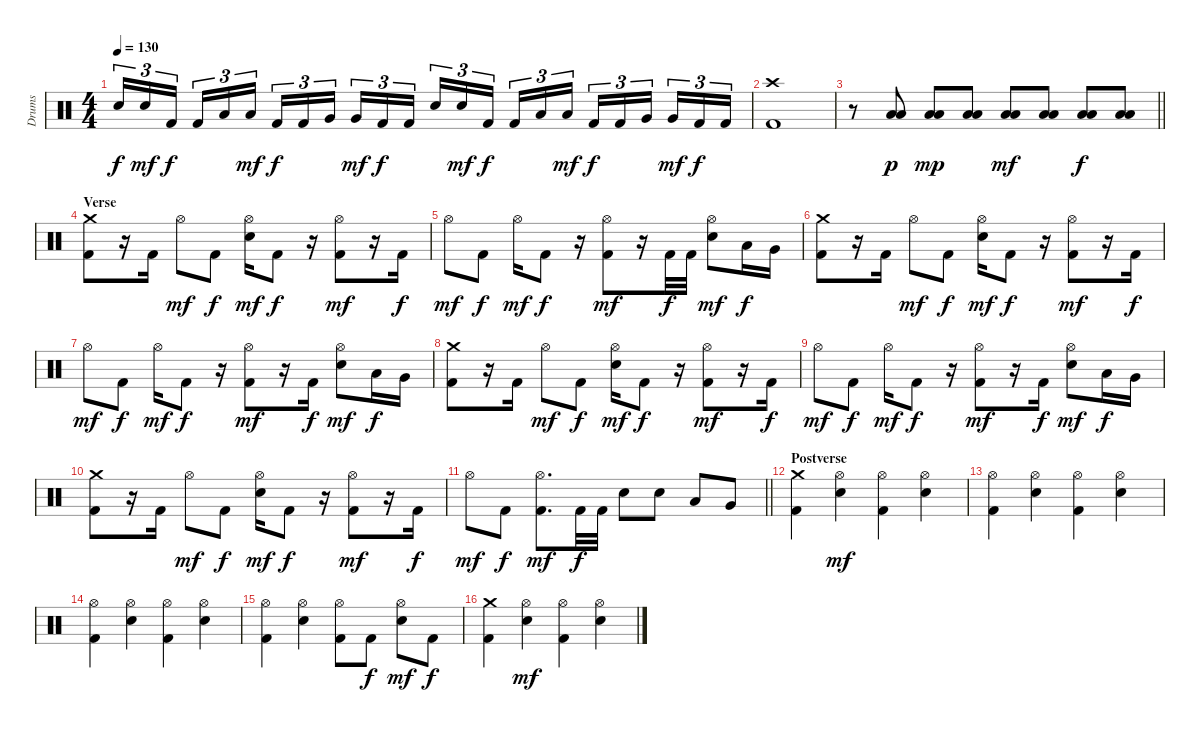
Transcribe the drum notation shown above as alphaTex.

\track ("Drums" "Drums") {instrument percussion}
\staff {score}
\articulation defaults
\ts (4 4)
\tempo 130
\clef neutral
\ks c "Electric Snare (hit)".16{tu (3 2) dy f} "Electric Snare (hit)".16{tu (3 2) dy mf} "Kick (hit) 2".16{tu (3 2) dy f beam splitsecondary} "Kick (hit) 2".16{tu (3 2)} "Low Tom (hit)".16{tu (3 2)} "Low Tom (hit)".16{tu (3 2) dy mf} "Kick (hit) 2".16{tu (3 2) dy f} "Kick (hit) 2".16{tu (3 2)} "Very Low Tom (hit)".16{tu (3 2) beam splitsecondary} "Very Low Tom (hit)".16{tu (3 2) dy mf} "Kick (hit) 2".16{tu (3 2) dy f} "Kick (hit) 2".16{tu (3 2)} "Electric Snare (hit)".16{tu (3 2)} "Electric Snare (hit)".16{tu (3 2) dy mf} "Kick (hit) 2".16{tu (3 2) dy f beam splitsecondary} "Kick (hit) 2".16{tu (3 2)} "Low Tom (hit)".16{tu (3 2)} "Low Tom (hit)".16{tu (3 2) dy mf} "Kick (hit) 2".16{tu (3 2) dy f} "Kick (hit) 2".16{tu (3 2)} "Very Low Tom (hit)".16{tu (3 2) beam splitsecondary} "Very Low Tom (hit)".16{tu (3 2) dy mf} "Kick (hit) 2".16{tu (3 2) dy f} "Kick (hit) 2".16{tu (3 2)}
|
("Kick (hit) 2" "Crash high (hit)").1 |
\barLineRight lightlight
r.8 ("Low Floor Tom (hit)" "Low Tom (hit)").8{dy p} ("Low Floor Tom (hit)" "Low Tom (hit)").8{dy mp} ("Low Floor Tom (hit)" "Low Tom (hit)").8 ("Low Floor Tom (hit)" "Low Tom (hit)").8{dy mf} ("Low Floor Tom (hit)" "Low Tom (hit)").8 ("Low Floor Tom (hit)" "Low Tom (hit)").8{dy f} ("Low Floor Tom (hit)" "Low Tom (hit)").8 |
\section ("" "Verse")
("Kick (hit) 2" "Crash medium (hit)").8 r.16 "Kick (hit) 2".16 "Hi-Hat (open)".8{dy mf} "Kick (hit) 2".8{dy f} ("Hi-Hat (open)" "Electric Snare (hit)").16{dy mf} "Kick (hit) 2".8{dy f} r.16 ("Kick (hit) 2" "Hi-Hat (open)").8{dy mf} r.16 "Kick (hit) 2".16{dy f} |
"Hi-Hat (open)".8{dy mf} "Kick (hit) 2".8{dy f} "Hi-Hat (open)".16{dy mf} "Kick (hit) 2".8{dy f} r.16 ("Kick (hit) 2" "Hi-Hat (open)").8{dy mf} r.16 "Kick (hit) 2".32{dy f} "Kick (hit) 2".32 ("Hi-Hat (open)" "Electric Snare (hit)").8{dy mf} "Low Tom (hit)".16{dy f} "Very Low Tom (hit)".16 |
("Kick (hit) 2" "Crash medium (hit)").8 r.16 "Kick (hit) 2".16 "Hi-Hat (open)".8{dy mf} "Kick (hit) 2".8{dy f} ("Hi-Hat (open)" "Electric Snare (hit)").16{dy mf} "Kick (hit) 2".8{dy f} r.16 ("Kick (hit) 2" "Hi-Hat (open)").8{dy mf} r.16 "Kick (hit) 2".16{dy f} |
"Hi-Hat (open)".8{dy mf} "Kick (hit) 2".8{dy f} "Hi-Hat (open)".16{dy mf} "Kick (hit) 2".8{dy f} r.16 ("Kick (hit) 2" "Hi-Hat (open)").8{dy mf} r.16 "Kick (hit) 2".16{dy f} ("Hi-Hat (open)" "Electric Snare (hit)").8{dy mf} "Low Tom (hit)".16{dy f} "Very Low Tom (hit)".16 |
("Kick (hit) 2" "Crash medium (hit)").8 r.16 "Kick (hit) 2".16 "Hi-Hat (open)".8{dy mf} "Kick (hit) 2".8{dy f} ("Hi-Hat (open)" "Electric Snare (hit)").16{dy mf} "Kick (hit) 2".8{dy f} r.16 ("Kick (hit) 2" "Hi-Hat (open)").8{dy mf} r.16 "Kick (hit) 2".16{dy f} |
"Hi-Hat (open)".8{dy mf} "Kick (hit) 2".8{dy f} "Hi-Hat (open)".16{dy mf} "Kick (hit) 2".8{dy f} r.16 ("Kick (hit) 2" "Hi-Hat (open)").8{dy mf} r.16 "Kick (hit) 2".16{dy f} ("Hi-Hat (open)" "Electric Snare (hit)").8{dy mf} "Low Tom (hit)".16{dy f} "Very Low Tom (hit)".16 |
("Kick (hit) 2" "Crash medium (hit)").8 r.16 "Kick (hit) 2".16 "Hi-Hat (open)".8{dy mf} "Kick (hit) 2".8{dy f} ("Hi-Hat (open)" "Electric Snare (hit)").16{dy mf} "Kick (hit) 2".8{dy f} r.16 ("Kick (hit) 2" "Hi-Hat (open)").8{dy mf} r.16 "Kick (hit) 2".16{dy f} |
\barLineRight lightlight "Hi-Hat (open)".8{dy mf} "Kick (hit) 2".8{dy f}
("Kick (hit) 2" "Hi-Hat (open)").8{d dy mf} "Kick (hit) 2".32{dy f} "Kick (hit) 2".32 "Electric Snare (hit)".8 "Electric Snare (hit)".8 "Low Tom (hit)".8 "Very Low Tom (hit)".8 |
\section ("" "Postverse")
("Kick (hit) 2" "Crash medium (hit)").4 ("Hi-Hat (open)" "Electric Snare (hit)").4{dy mf} ("Kick (hit) 2" "Hi-Hat (open)").4 ("Hi-Hat (open)" "Electric Snare (hit)").4 |
("Kick (hit) 2" "Hi-Hat (open)").4 ("Hi-Hat (open)" "Electric Snare (hit)").4 ("Kick (hit) 2" "Hi-Hat (open)").4 ("Hi-Hat (open)" "Electric Snare (hit)").4 |
("Kick (hit) 2" "Hi-Hat (open)").4 ("Hi-Hat (open)" "Electric Snare (hit)").4 ("Kick (hit) 2" "Hi-Hat (open)").4 ("Hi-Hat (open)" "Electric Snare (hit)").4 |
("Kick (hit) 2" "Hi-Hat (open)").4 ("Hi-Hat (open)" "Electric Snare (hit)").4 ("Kick (hit) 2" "Hi-Hat (open)").8 "Kick (hit) 2".8{dy f} ("Hi-Hat (open)" "Electric Snare (hit)").8{dy mf} "Kick (hit) 2".8{dy f} |
("Kick (hit) 2" "Crash medium (hit)").4 ("Hi-Hat (open)" "Electric Snare (hit)").4{dy mf} ("Kick (hit) 2" "Hi-Hat (open)").4 ("Hi-Hat (open)" "Electric Snare (hit)").4
